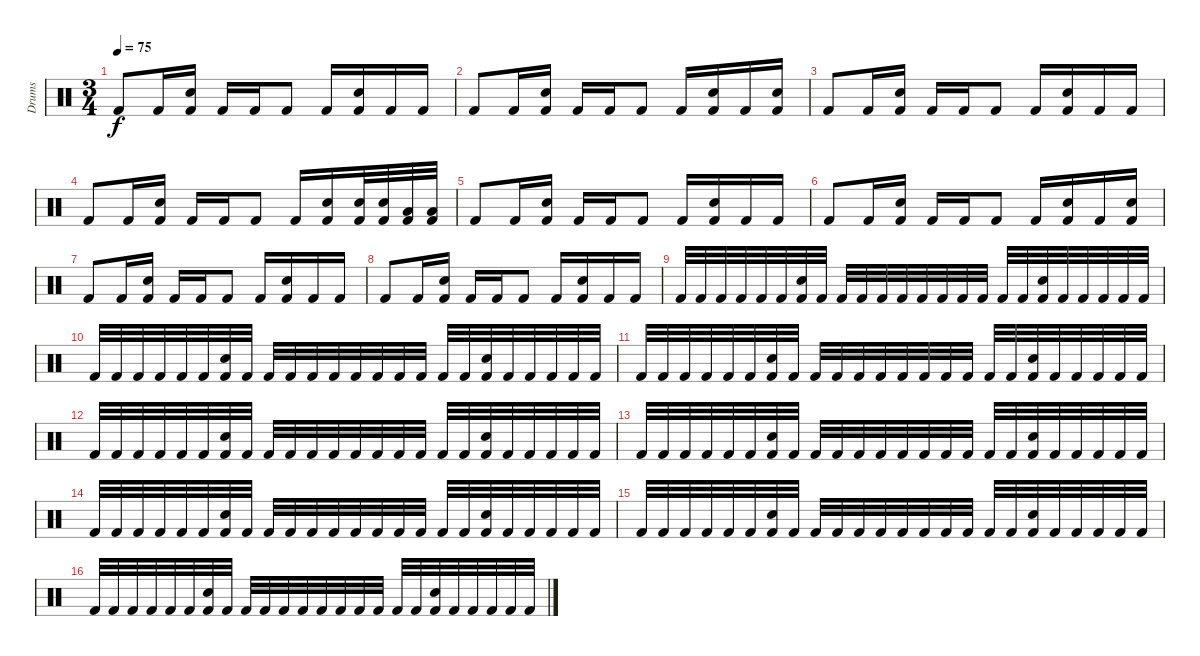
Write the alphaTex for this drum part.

\track ("Drums" "Drums") {instrument percussion}
\staff {score}
\articulation defaults
\ts (3 4)
\tempo 75
\clef neutral
\ks c "Kick (hit) 2".8{dy f} "Kick (hit) 2".16
("Snare (hit) 2" "Kick (hit) 2").16 "Kick (hit) 2".16 "Kick (hit) 2".16 "Kick (hit) 2".8 "Kick (hit) 2".16 ("Snare (hit) 2" "Kick (hit) 2").16 "Kick (hit) 2".16 "Kick (hit) 2".16 |
"Kick (hit) 2".8 "Kick (hit) 2".16 ("Snare (hit) 2" "Kick (hit) 2").16 "Kick (hit) 2".16 "Kick (hit) 2".16 "Kick (hit) 2".8 "Kick (hit) 2".16 ("Snare (hit) 2" "Kick (hit) 2").16 "Kick (hit) 2".16 ("Snare (hit) 2" "Kick (hit) 2").16 |
"Kick (hit) 2".8 "Kick (hit) 2".16 ("Snare (hit) 2" "Kick (hit) 2").16 "Kick (hit) 2".16 "Kick (hit) 2".16 "Kick (hit) 2".8 "Kick (hit) 2".16 ("Snare (hit) 2" "Kick (hit) 2").16 "Kick (hit) 2".16 "Kick (hit) 2".16 |
"Kick (hit) 2".8 "Kick (hit) 2".16 ("Snare (hit) 2" "Kick (hit) 2").16 "Kick (hit) 2".16 "Kick (hit) 2".16 "Kick (hit) 2".8 "Kick (hit) 2".16 ("Snare (hit) 2" "Kick (hit) 2").16 ("Snare (hit) 2" "Kick (hit) 2").32 ("Snare (hit) 2" "Kick (hit) 2").32 ("Low Tom (hit)" "Kick (hit) 2").32 ("Low Tom (hit)" "Kick (hit) 2").32 |
"Kick (hit) 2".8 "Kick (hit) 2".16 ("Snare (hit) 2" "Kick (hit) 2").16 "Kick (hit) 2".16 "Kick (hit) 2".16 "Kick (hit) 2".8 "Kick (hit) 2".16 ("Snare (hit) 2" "Kick (hit) 2").16 "Kick (hit) 2".16 "Kick (hit) 2".16 |
"Kick (hit) 2".8 "Kick (hit) 2".16 ("Snare (hit) 2" "Kick (hit) 2").16 "Kick (hit) 2".16 "Kick (hit) 2".16 "Kick (hit) 2".8 "Kick (hit) 2".16 ("Snare (hit) 2" "Kick (hit) 2").16 "Kick (hit) 2".16 ("Snare (hit) 2" "Kick (hit) 2").16 |
"Kick (hit) 2".8 "Kick (hit) 2".16 ("Snare (hit) 2" "Kick (hit) 2").16 "Kick (hit) 2".16 "Kick (hit) 2".16 "Kick (hit) 2".8 "Kick (hit) 2".16 ("Snare (hit) 2" "Kick (hit) 2").16 "Kick (hit) 2".16 "Kick (hit) 2".16 |
"Kick (hit) 2".8 "Kick (hit) 2".16 ("Snare (hit) 2" "Kick (hit) 2").16 "Kick (hit) 2".16 "Kick (hit) 2".16 "Kick (hit) 2".8 "Kick (hit) 2".16 ("Snare (hit) 2" "Kick (hit) 2").16 "Kick (hit) 2".16 "Kick (hit) 2".16 |
"Kick (hit) 2".32 "Kick (hit) 2".32 "Kick (hit) 2".32 "Kick (hit) 2".32 "Kick (hit) 2".32 "Kick (hit) 2".32 ("Snare (hit) 2" "Kick (hit) 2").32 "Kick (hit) 2".32 "Kick (hit) 2".32 "Kick (hit) 2".32 "Kick (hit) 2".32 "Kick (hit) 2".32 "Kick (hit) 2".32 "Kick (hit) 2".32 "Kick (hit) 2".32 "Kick (hit) 2".32 "Kick (hit) 2".32 "Kick (hit) 2".32 ("Snare (hit) 2" "Kick (hit) 2").32 "Kick (hit) 2".32 "Kick (hit) 2".32 "Kick (hit) 2".32 "Kick (hit) 2".32 "Kick (hit) 2".32 |
"Kick (hit) 2".32 "Kick (hit) 2".32 "Kick (hit) 2".32 "Kick (hit) 2".32 "Kick (hit) 2".32 "Kick (hit) 2".32 ("Snare (hit) 2" "Kick (hit) 2").32 "Kick (hit) 2".32 "Kick (hit) 2".32 "Kick (hit) 2".32 "Kick (hit) 2".32 "Kick (hit) 2".32 "Kick (hit) 2".32 "Kick (hit) 2".32 "Kick (hit) 2".32 "Kick (hit) 2".32 "Kick (hit) 2".32 "Kick (hit) 2".32 ("Snare (hit) 2" "Kick (hit) 2").32 "Kick (hit) 2".32 "Kick (hit) 2".32 "Kick (hit) 2".32 "Kick (hit) 2".32 "Kick (hit) 2".32 |
"Kick (hit) 2".32 "Kick (hit) 2".32 "Kick (hit) 2".32 "Kick (hit) 2".32 "Kick (hit) 2".32 "Kick (hit) 2".32 ("Snare (hit) 2" "Kick (hit) 2").32 "Kick (hit) 2".32 "Kick (hit) 2".32 "Kick (hit) 2".32 "Kick (hit) 2".32 "Kick (hit) 2".32 "Kick (hit) 2".32 "Kick (hit) 2".32 "Kick (hit) 2".32 "Kick (hit) 2".32 "Kick (hit) 2".32 "Kick (hit) 2".32 ("Snare (hit) 2" "Kick (hit) 2").32 "Kick (hit) 2".32 "Kick (hit) 2".32 "Kick (hit) 2".32 "Kick (hit) 2".32 "Kick (hit) 2".32 |
"Kick (hit) 2".32 "Kick (hit) 2".32 "Kick (hit) 2".32 "Kick (hit) 2".32 "Kick (hit) 2".32 "Kick (hit) 2".32 ("Snare (hit) 2" "Kick (hit) 2").32 "Kick (hit) 2".32 "Kick (hit) 2".32 "Kick (hit) 2".32 "Kick (hit) 2".32 "Kick (hit) 2".32 "Kick (hit) 2".32 "Kick (hit) 2".32 "Kick (hit) 2".32 "Kick (hit) 2".32 "Kick (hit) 2".32 "Kick (hit) 2".32 ("Snare (hit) 2" "Kick (hit) 2").32 "Kick (hit) 2".32 "Kick (hit) 2".32 "Kick (hit) 2".32 "Kick (hit) 2".32 "Kick (hit) 2".32 |
"Kick (hit) 2".32 "Kick (hit) 2".32 "Kick (hit) 2".32 "Kick (hit) 2".32 "Kick (hit) 2".32 "Kick (hit) 2".32 ("Snare (hit) 2" "Kick (hit) 2").32 "Kick (hit) 2".32 "Kick (hit) 2".32 "Kick (hit) 2".32 "Kick (hit) 2".32 "Kick (hit) 2".32 "Kick (hit) 2".32 "Kick (hit) 2".32 "Kick (hit) 2".32 "Kick (hit) 2".32 "Kick (hit) 2".32 "Kick (hit) 2".32 ("Snare (hit) 2" "Kick (hit) 2").32 "Kick (hit) 2".32 "Kick (hit) 2".32 "Kick (hit) 2".32 "Kick (hit) 2".32 "Kick (hit) 2".32 |
"Kick (hit) 2".32 "Kick (hit) 2".32 "Kick (hit) 2".32 "Kick (hit) 2".32 "Kick (hit) 2".32 "Kick (hit) 2".32 ("Snare (hit) 2" "Kick (hit) 2").32 "Kick (hit) 2".32 "Kick (hit) 2".32 "Kick (hit) 2".32 "Kick (hit) 2".32 "Kick (hit) 2".32 "Kick (hit) 2".32 "Kick (hit) 2".32 "Kick (hit) 2".32 "Kick (hit) 2".32 "Kick (hit) 2".32 "Kick (hit) 2".32 ("Snare (hit) 2" "Kick (hit) 2").32 "Kick (hit) 2".32 "Kick (hit) 2".32 "Kick (hit) 2".32 "Kick (hit) 2".32 "Kick (hit) 2".32 |
"Kick (hit) 2".32 "Kick (hit) 2".32 "Kick (hit) 2".32 "Kick (hit) 2".32 "Kick (hit) 2".32 "Kick (hit) 2".32 ("Snare (hit) 2" "Kick (hit) 2").32 "Kick (hit) 2".32 "Kick (hit) 2".32 "Kick (hit) 2".32 "Kick (hit) 2".32 "Kick (hit) 2".32 "Kick (hit) 2".32 "Kick (hit) 2".32 "Kick (hit) 2".32 "Kick (hit) 2".32 "Kick (hit) 2".32 "Kick (hit) 2".32 ("Snare (hit) 2" "Kick (hit) 2").32 "Kick (hit) 2".32 "Kick (hit) 2".32 "Kick (hit) 2".32 "Kick (hit) 2".32 "Kick (hit) 2".32 |
"Kick (hit) 2".32 "Kick (hit) 2".32 "Kick (hit) 2".32 "Kick (hit) 2".32 "Kick (hit) 2".32 "Kick (hit) 2".32 ("Snare (hit) 2" "Kick (hit) 2").32 "Kick (hit) 2".32 "Kick (hit) 2".32 "Kick (hit) 2".32 "Kick (hit) 2".32 "Kick (hit) 2".32 "Kick (hit) 2".32 "Kick (hit) 2".32 "Kick (hit) 2".32 "Kick (hit) 2".32 "Kick (hit) 2".32 "Kick (hit) 2".32 ("Snare (hit) 2" "Kick (hit) 2").32 "Kick (hit) 2".32 "Kick (hit) 2".32 "Kick (hit) 2".32 "Kick (hit) 2".32 "Kick (hit) 2".32
